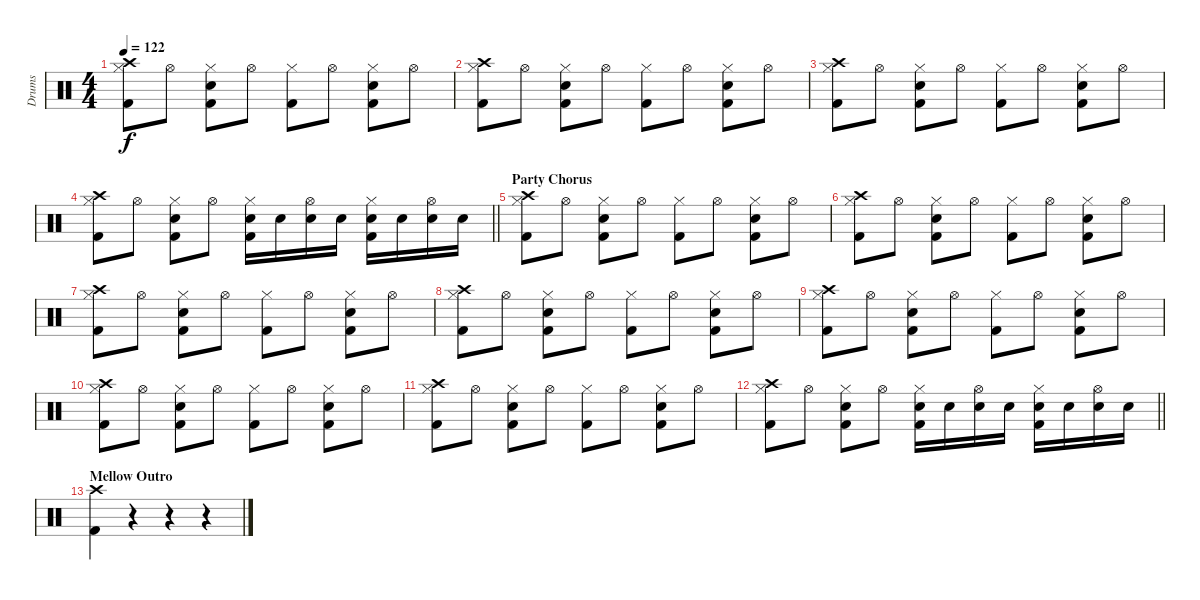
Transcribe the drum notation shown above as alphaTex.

\track ("Drums" "Drums") {instrument percussion}
\staff {score}
\articulation defaults
\ts (4 4)
\tempo 122
\clef neutral
\ks c
("Crash high (hit)" "Hi-Hat (closed)" "Kick (hit) 2").8{dy f} "Hi-Hat (open)".8 ("Hi-Hat (closed)" "Snare (hit) 2" "Kick (hit) 2").8 "Hi-Hat (open)".8 ("Hi-Hat (closed)" "Kick (hit) 2").8 "Hi-Hat (open)".8 ("Hi-Hat (closed)" "Snare (hit) 2" "Kick (hit) 2").8 "Hi-Hat (open)".8 |
("Crash high (hit)" "Hi-Hat (closed)" "Kick (hit) 2").8 "Hi-Hat (open)".8 ("Hi-Hat (closed)" "Snare (hit) 2" "Kick (hit) 2").8 "Hi-Hat (open)".8 ("Hi-Hat (closed)" "Kick (hit) 2").8 "Hi-Hat (open)".8 ("Hi-Hat (closed)" "Snare (hit) 2" "Kick (hit) 2").8 "Hi-Hat (open)".8 |
("Crash high (hit)" "Hi-Hat (closed)" "Kick (hit) 2").8 "Hi-Hat (open)".8 ("Hi-Hat (closed)" "Snare (hit) 2" "Kick (hit) 2").8 "Hi-Hat (open)".8 ("Hi-Hat (closed)" "Kick (hit) 2").8 "Hi-Hat (open)".8 ("Hi-Hat (closed)" "Snare (hit) 2" "Kick (hit) 2").8 "Hi-Hat (open)".8 |
\barLineRight lightlight
("Crash high (hit)" "Hi-Hat (closed)" "Kick (hit) 2").8 "Hi-Hat (open)".8 ("Hi-Hat (closed)" "Snare (hit) 2" "Kick (hit) 2").8 "Hi-Hat (open)".8 ("Hi-Hat (closed)" "Snare (hit) 2" "Kick (hit) 2").16 "Snare (hit) 2".16 ("Hi-Hat (open)" "Snare (hit) 2").16 "Snare (hit) 2".16 ("Hi-Hat (closed)" "Snare (hit) 2" "Kick (hit) 2").16 "Snare (hit) 2".16 ("Hi-Hat (open)" "Snare (hit) 2").16 "Snare (hit) 2".16 |
\section ("" "Party Chorus")
("Crash high (hit)" "Hi-Hat (closed)" "Kick (hit) 2").8 "Hi-Hat (open)".8 ("Hi-Hat (closed)" "Snare (hit) 2" "Kick (hit) 2").8 "Hi-Hat (open)".8 ("Hi-Hat (closed)" "Kick (hit) 2").8 "Hi-Hat (open)".8 ("Hi-Hat (closed)" "Snare (hit) 2" "Kick (hit) 2").8 "Hi-Hat (open)".8 |
("Crash high (hit)" "Hi-Hat (closed)" "Kick (hit) 2").8 "Hi-Hat (open)".8 ("Hi-Hat (closed)" "Snare (hit) 2" "Kick (hit) 2").8 "Hi-Hat (open)".8 ("Hi-Hat (closed)" "Kick (hit) 2").8 "Hi-Hat (open)".8 ("Hi-Hat (closed)" "Snare (hit) 2" "Kick (hit) 2").8 "Hi-Hat (open)".8 |
("Crash high (hit)" "Hi-Hat (closed)" "Kick (hit) 2").8 "Hi-Hat (open)".8 ("Hi-Hat (closed)" "Snare (hit) 2" "Kick (hit) 2").8 "Hi-Hat (open)".8 ("Hi-Hat (closed)" "Kick (hit) 2").8 "Hi-Hat (open)".8 ("Hi-Hat (closed)" "Snare (hit) 2" "Kick (hit) 2").8 "Hi-Hat (open)".8 |
("Crash high (hit)" "Hi-Hat (closed)" "Kick (hit) 2").8 "Hi-Hat (open)".8 ("Hi-Hat (closed)" "Snare (hit) 2" "Kick (hit) 2").8 "Hi-Hat (open)".8 ("Hi-Hat (closed)" "Kick (hit) 2").8 "Hi-Hat (open)".8 ("Hi-Hat (closed)" "Snare (hit) 2" "Kick (hit) 2").8 "Hi-Hat (open)".8 |
("Crash high (hit)" "Hi-Hat (closed)" "Kick (hit) 2").8 "Hi-Hat (open)".8 ("Hi-Hat (closed)" "Snare (hit) 2" "Kick (hit) 2").8 "Hi-Hat (open)".8 ("Hi-Hat (closed)" "Kick (hit) 2").8 "Hi-Hat (open)".8 ("Hi-Hat (closed)" "Snare (hit) 2" "Kick (hit) 2").8 "Hi-Hat (open)".8 |
("Crash high (hit)" "Hi-Hat (closed)" "Kick (hit) 2").8 "Hi-Hat (open)".8 ("Hi-Hat (closed)" "Snare (hit) 2" "Kick (hit) 2").8 "Hi-Hat (open)".8 ("Hi-Hat (closed)" "Kick (hit) 2").8 "Hi-Hat (open)".8 ("Hi-Hat (closed)" "Snare (hit) 2" "Kick (hit) 2").8 "Hi-Hat (open)".8 |
("Crash high (hit)" "Hi-Hat (closed)" "Kick (hit) 2").8 "Hi-Hat (open)".8 ("Hi-Hat (closed)" "Snare (hit) 2" "Kick (hit) 2").8 "Hi-Hat (open)".8 ("Hi-Hat (closed)" "Kick (hit) 2").8 "Hi-Hat (open)".8 ("Hi-Hat (closed)" "Snare (hit) 2" "Kick (hit) 2").8 "Hi-Hat (open)".8 |
\barLineRight lightlight
("Crash high (hit)" "Hi-Hat (closed)" "Kick (hit) 2").8 "Hi-Hat (open)".8 ("Hi-Hat (closed)" "Snare (hit) 2" "Kick (hit) 2").8 "Hi-Hat (open)".8 ("Hi-Hat (closed)" "Snare (hit) 2" "Kick (hit) 2").16 "Snare (hit) 2".16 ("Hi-Hat (open)" "Snare (hit) 2").16 "Snare (hit) 2".16 ("Hi-Hat (closed)" "Snare (hit) 2" "Kick (hit) 2").16 "Snare (hit) 2".16 ("Hi-Hat (open)" "Snare (hit) 2").16 "Snare (hit) 2".16 |
\section ("" "Mellow Outro")
("Crash high (hit)" "Kick (hit) 2").4 r.4 r.4 r.4
